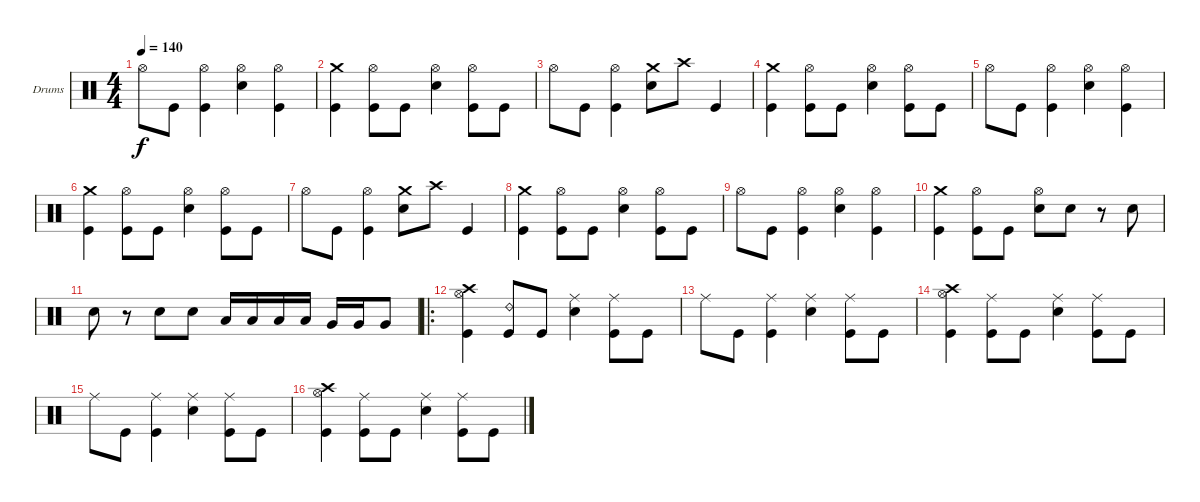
\bracketExtendMode groupsimilarinstruments
\firstSystemTrackNameOrientation horizontal
\otherSystemsTrackNameOrientation horizontal
\track ("Drumkit" "Drums") {instrument percussion}
\staff {score}
\articulation defaults
\ts (4 4)
\tempo 140
\clef neutral
\ks c "Hi-Hat (open)".8{dy f} "Kick (hit)".8
("Hi-Hat (open)" "Kick (hit)").4 ("Hi-Hat (open)" "Snare (hit) 2").4 ("Hi-Hat (open)" "Kick (hit)").4 |
("Crash medium (hit)" "Kick (hit)").4 ("Hi-Hat (open)" "Kick (hit)").8 "Kick (hit)".8 ("Hi-Hat (open)" "Snare (hit) 2").4 ("Hi-Hat (open)" "Kick (hit)").8 "Kick (hit)".8 |
"Hi-Hat (open)".8 "Kick (hit)".8 ("Hi-Hat (open)" "Kick (hit)").4 ("Crash medium (hit)" "Snare (hit) 2").8 "Crash high (hit)".8 "Kick (hit)".4 |
("Crash medium (hit)" "Kick (hit)").4 ("Hi-Hat (open)" "Kick (hit)").8 "Kick (hit)".8 ("Hi-Hat (open)" "Snare (hit) 2").4 ("Hi-Hat (open)" "Kick (hit)").8 "Kick (hit)".8 |
"Hi-Hat (open)".8 "Kick (hit)".8 ("Hi-Hat (open)" "Kick (hit)").4 ("Hi-Hat (open)" "Snare (hit) 2").4 ("Hi-Hat (open)" "Kick (hit)").4 |
("Crash medium (hit)" "Kick (hit)").4 ("Hi-Hat (open)" "Kick (hit)").8 "Kick (hit)".8 ("Hi-Hat (open)" "Snare (hit) 2").4 ("Hi-Hat (open)" "Kick (hit)").8 "Kick (hit)".8 |
"Hi-Hat (open)".8 "Kick (hit)".8 ("Hi-Hat (open)" "Kick (hit)").4 ("Crash medium (hit)" "Snare (hit) 2").8 "Crash high (hit)".8 "Kick (hit)".4 |
("Crash medium (hit)" "Kick (hit)").4 ("Hi-Hat (open)" "Kick (hit)").8 "Kick (hit)".8 ("Hi-Hat (open)" "Snare (hit) 2").4 ("Hi-Hat (open)" "Kick (hit)").8 "Kick (hit)".8 |
"Hi-Hat (open)".8 "Kick (hit)".8 ("Hi-Hat (open)" "Kick (hit)").4 ("Hi-Hat (open)" "Snare (hit) 2").4 ("Hi-Hat (open)" "Kick (hit)").4 |
("Crash medium (hit)" "Kick (hit)").4 ("Hi-Hat (open)" "Kick (hit)").8 "Kick (hit)".8 ("Hi-Hat (open)" "Snare (hit) 2").8 "Snare (hit) 2".8 r.8 "Snare (hit) 2".8 |
"Snare (hit) 2".8 r.8 "Snare (hit) 2".8 "Snare (hit) 2".8 "Low Tom (hit)".16 "Low Tom (hit)".16 "Low Tom (hit)".16 "Low Tom (hit)".16 "Very Low Tom (hit)".16 "Very Low Tom (hit)".16 "Very Low Tom (hit)".8 |
\ro
("Hi-Hat (open)" "Crash high (hit)" "Kick (hit)").4 ("Ride (bell) 2" "Kick (hit)").8 "Kick (hit)".8 ("Ride (middle)" "Snare (hit) 2").4 ("Ride (middle)" "Kick (hit)").8 "Kick (hit)".8 |
"Ride (middle)".8 "Kick (hit)".8 ("Ride (middle)" "Kick (hit)").4 ("Ride (middle)" "Snare (hit) 2").4 ("Ride (middle)" "Kick (hit)").8 "Kick (hit)".8 |
("Hi-Hat (open)" "Crash high (hit)" "Kick (hit)").4 ("Ride (middle)" "Kick (hit)").8 "Kick (hit)".8 ("Ride (middle)" "Snare (hit) 2").4 ("Ride (middle)" "Kick (hit)").8 "Kick (hit)".8 |
"Ride (middle)".8 "Kick (hit)".8 ("Ride (middle)" "Kick (hit)").4 ("Ride (middle)" "Snare (hit) 2").4 ("Ride (middle)" "Kick (hit)").8 "Kick (hit)".8 |
("Hi-Hat (open)" "Crash high (hit)" "Kick (hit)").4 ("Ride (middle)" "Kick (hit)").8 "Kick (hit)".8 ("Ride (middle)" "Snare (hit) 2").4 ("Ride (middle)" "Kick (hit)").8 "Kick (hit)".8
